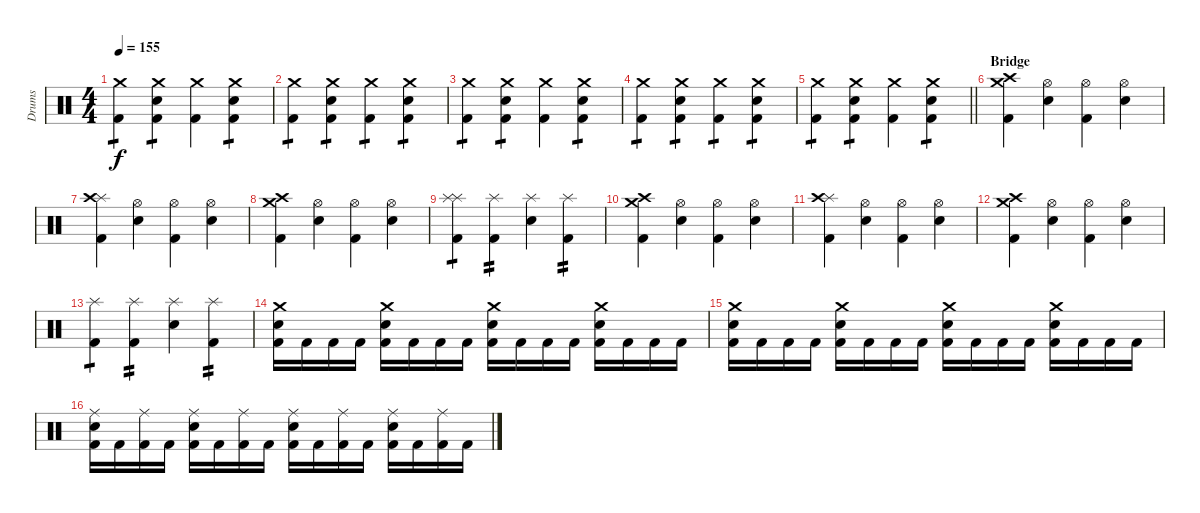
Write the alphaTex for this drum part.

\track ("Drums" "Drums") {instrument percussion}
\staff {score}
\articulation defaults
\ts (4 4)
\tempo 155
\clef neutral
\ks c
("Crash medium (hit)" "Kick (hit) 2").4{tp 1 dy f} ("Crash medium (hit)" "Snare (hit) 2" "Kick (hit) 2").4{tp 1} ("Crash medium (hit)" "Kick (hit) 2").4 ("Crash medium (hit)" "Snare (hit) 2" "Kick (hit) 2").4{tp 1} |
("Crash medium (hit)" "Kick (hit) 2").4{tp 1} ("Crash medium (hit)" "Snare (hit) 2" "Kick (hit) 2").4{tp 1} ("Crash medium (hit)" "Kick (hit) 2").4{tp 1} ("Crash medium (hit)" "Snare (hit) 2" "Kick (hit) 2").4{tp 1} |
("Crash medium (hit)" "Kick (hit) 2").4{tp 1} ("Crash medium (hit)" "Snare (hit) 2" "Kick (hit) 2").4{tp 1} ("Crash medium (hit)" "Kick (hit) 2").4 ("Crash medium (hit)" "Snare (hit) 2" "Kick (hit) 2").4{tp 1} |
("Crash medium (hit)" "Kick (hit) 2").4{tp 1} ("Crash medium (hit)" "Snare (hit) 2" "Kick (hit) 2").4{tp 1} ("Crash medium (hit)" "Kick (hit) 2").4{tp 1} ("Crash medium (hit)" "Snare (hit) 2" "Kick (hit) 2").4{tp 1} |
\barLineRight lightlight
("Crash medium (hit)" "Kick (hit) 2").4{tp 1} ("Crash medium (hit)" "Snare (hit) 2" "Kick (hit) 2").4{tp 1} ("Crash medium (hit)" "Kick (hit) 2").4 ("Crash medium (hit)" "Snare (hit) 2" "Kick (hit) 2").4{tp 1} |
\section ("" "Bridge")
("Crash medium (hit)" "Crash high (hit)" "Kick (hit) 2").4 ("Hi-Hat (open)" "Snare (hit) 2").4 ("Hi-Hat (open)" "Kick (hit) 2").4 ("Hi-Hat (open)" "Snare (hit) 2").4 |
("Splash (hit)" "Crash high (hit)" "Kick (hit) 2").4 ("Hi-Hat (open)" "Snare (hit) 2").4 ("Hi-Hat (open)" "Kick (hit) 2").4 ("Hi-Hat (open)" "Snare (hit) 2").4 |
("Crash medium (hit)" "Crash high (hit)" "Kick (hit) 2").4 ("Hi-Hat (open)" "Snare (hit) 2").4 ("Hi-Hat (open)" "Kick (hit) 2").4 ("Hi-Hat (open)" "Snare (hit) 2").4 |
("Kick (hit) 2" "Splash (hit)" "Splash (hit)").4{tp 1} ("Kick (hit) 2" "Splash (hit)").4{tp 2} ("Snare (hit) 2" "Splash (hit)").4 ("Kick (hit) 2" "Splash (hit)").4{tp 2} |
("Crash medium (hit)" "Crash high (hit)" "Kick (hit) 2").4 ("Hi-Hat (open)" "Snare (hit) 2").4 ("Hi-Hat (open)" "Kick (hit) 2").4 ("Hi-Hat (open)" "Snare (hit) 2").4 |
("Splash (hit)" "Crash high (hit)" "Kick (hit) 2").4 ("Hi-Hat (open)" "Snare (hit) 2").4 ("Hi-Hat (open)" "Kick (hit) 2").4 ("Hi-Hat (open)" "Snare (hit) 2").4 |
("Crash medium (hit)" "Crash high (hit)" "Kick (hit) 2").4 ("Hi-Hat (open)" "Snare (hit) 2").4 ("Hi-Hat (open)" "Kick (hit) 2").4 ("Hi-Hat (open)" "Snare (hit) 2").4 |
("Kick (hit) 2" "Splash (hit)").4{tp 1} ("Kick (hit) 2" "Splash (hit)").4{tp 2} ("Snare (hit) 2" "Splash (hit)").4 ("Kick (hit) 2" "Splash (hit)").4{tp 2} |
("Kick (hit) 2" "Crash medium (hit)" "Snare (hit) 2").16 "Kick (hit) 2".16 "Kick (hit) 2".16 "Kick (hit) 2".16 ("Kick (hit) 2" "Crash medium (hit)" "Snare (hit) 2").16 "Kick (hit) 2".16 "Kick (hit) 2".16 "Kick (hit) 2".16 ("Kick (hit) 2" "Crash medium (hit)" "Snare (hit) 2").16 "Kick (hit) 2".16 "Kick (hit) 2".16 "Kick (hit) 2".16 ("Kick (hit) 2" "Crash medium (hit)" "Snare (hit) 2").16 "Kick (hit) 2".16 "Kick (hit) 2".16 "Kick (hit) 2".16 |
("Kick (hit) 2" "Crash medium (hit)" "Snare (hit) 2").16 "Kick (hit) 2".16 "Kick (hit) 2".16 "Kick (hit) 2".16 ("Kick (hit) 2" "Crash medium (hit)" "Snare (hit) 2").16 "Kick (hit) 2".16 "Kick (hit) 2".16 "Kick (hit) 2".16 ("Kick (hit) 2" "Crash medium (hit)" "Snare (hit) 2").16 "Kick (hit) 2".16 "Kick (hit) 2".16 "Kick (hit) 2".16 ("Kick (hit) 2" "Crash medium (hit)" "Snare (hit) 2").16 "Kick (hit) 2".16 "Kick (hit) 2".16 "Kick (hit) 2".16 |
("Kick (hit) 2" "Ride (middle)" "Snare (hit) 2").16 "Kick (hit) 2".16 ("Kick (hit) 2" "Ride (middle)").16 "Kick (hit) 2".16 ("Kick (hit) 2" "Ride (middle)" "Snare (hit) 2").16 "Kick (hit) 2".16 ("Kick (hit) 2" "Ride (middle)").16 "Kick (hit) 2".16 ("Kick (hit) 2" "Ride (middle)" "Snare (hit) 2").16 "Kick (hit) 2".16 ("Kick (hit) 2" "Ride (middle)").16 "Kick (hit) 2".16 ("Kick (hit) 2" "Ride (middle)" "Snare (hit) 2").16 "Kick (hit) 2".16 ("Kick (hit) 2" "Ride (middle)").16 "Kick (hit) 2".16
